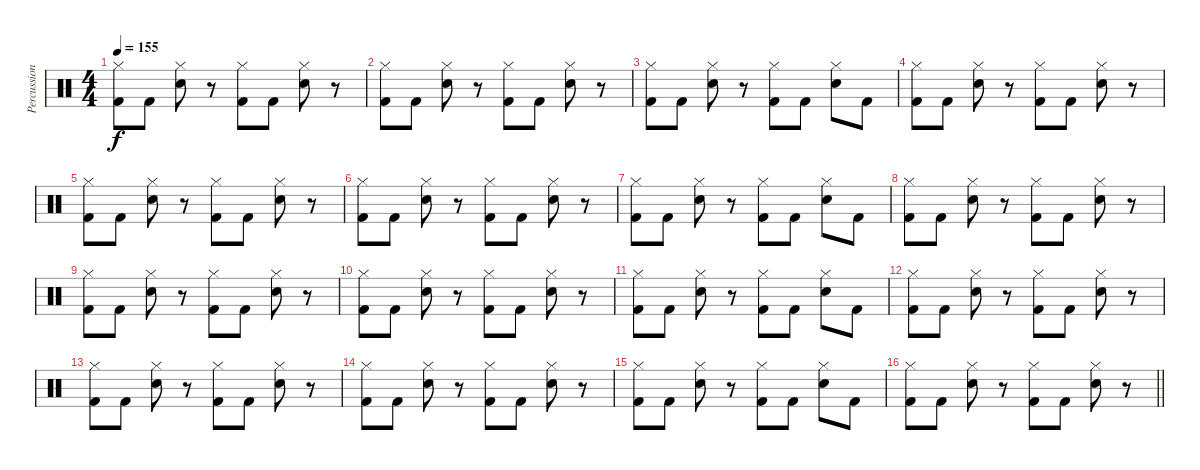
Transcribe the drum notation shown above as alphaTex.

\track ("Percussions" "Percussion") {mute instrument percussion}
\staff {score}
\articulation defaults
\ts (4 4)
\tempo 155
\clef neutral
\ks c
("Hi-Hat (closed)" "Kick (hit) 2").8{dy f} "Kick (hit) 2".8 ("Hi-Hat (closed)" "Electric Snare (hit)").8 r.8 ("Hi-Hat (closed)" "Kick (hit) 2").8 "Kick (hit) 2".8 ("Hi-Hat (closed)" "Electric Snare (hit)").8 r.8 |
("Hi-Hat (closed)" "Kick (hit) 2").8 "Kick (hit) 2".8 ("Hi-Hat (closed)" "Electric Snare (hit)").8 r.8 ("Hi-Hat (closed)" "Kick (hit) 2").8 "Kick (hit) 2".8 ("Hi-Hat (closed)" "Electric Snare (hit)").8 r.8 |
("Hi-Hat (closed)" "Kick (hit) 2").8 "Kick (hit) 2".8 ("Hi-Hat (closed)" "Electric Snare (hit)").8 r.8 ("Hi-Hat (closed)" "Kick (hit) 2").8 "Kick (hit) 2".8 ("Hi-Hat (closed)" "Electric Snare (hit)").8 "Kick (hit) 2".8 |
("Hi-Hat (closed)" "Kick (hit) 2").8 "Kick (hit) 2".8 ("Hi-Hat (closed)" "Electric Snare (hit)").8 r.8 ("Hi-Hat (closed)" "Kick (hit) 2").8 "Kick (hit) 2".8 ("Hi-Hat (closed)" "Electric Snare (hit)").8 r.8 |
("Hi-Hat (closed)" "Kick (hit) 2").8 "Kick (hit) 2".8 ("Hi-Hat (closed)" "Electric Snare (hit)").8 r.8 ("Hi-Hat (closed)" "Kick (hit) 2").8 "Kick (hit) 2".8 ("Hi-Hat (closed)" "Electric Snare (hit)").8 r.8 |
("Hi-Hat (closed)" "Kick (hit) 2").8 "Kick (hit) 2".8 ("Hi-Hat (closed)" "Electric Snare (hit)").8 r.8 ("Hi-Hat (closed)" "Kick (hit) 2").8 "Kick (hit) 2".8 ("Hi-Hat (closed)" "Electric Snare (hit)").8 r.8 |
("Hi-Hat (closed)" "Kick (hit) 2").8 "Kick (hit) 2".8 ("Hi-Hat (closed)" "Electric Snare (hit)").8 r.8 ("Hi-Hat (closed)" "Kick (hit) 2").8 "Kick (hit) 2".8 ("Hi-Hat (closed)" "Electric Snare (hit)").8 "Kick (hit) 2".8 |
("Hi-Hat (closed)" "Kick (hit) 2").8 "Kick (hit) 2".8 ("Hi-Hat (closed)" "Electric Snare (hit)").8 r.8 ("Hi-Hat (closed)" "Kick (hit) 2").8 "Kick (hit) 2".8 ("Hi-Hat (closed)" "Electric Snare (hit)").8 r.8 |
("Hi-Hat (closed)" "Kick (hit) 2").8 "Kick (hit) 2".8 ("Hi-Hat (closed)" "Electric Snare (hit)").8 r.8 ("Hi-Hat (closed)" "Kick (hit) 2").8 "Kick (hit) 2".8 ("Hi-Hat (closed)" "Electric Snare (hit)").8 r.8 |
("Hi-Hat (closed)" "Kick (hit) 2").8 "Kick (hit) 2".8 ("Hi-Hat (closed)" "Electric Snare (hit)").8 r.8 ("Hi-Hat (closed)" "Kick (hit) 2").8 "Kick (hit) 2".8 ("Hi-Hat (closed)" "Electric Snare (hit)").8 r.8 |
("Hi-Hat (closed)" "Kick (hit) 2").8 "Kick (hit) 2".8 ("Hi-Hat (closed)" "Electric Snare (hit)").8 r.8 ("Hi-Hat (closed)" "Kick (hit) 2").8 "Kick (hit) 2".8 ("Hi-Hat (closed)" "Electric Snare (hit)").8 "Kick (hit) 2".8 |
("Hi-Hat (closed)" "Kick (hit) 2").8 "Kick (hit) 2".8 ("Hi-Hat (closed)" "Electric Snare (hit)").8 r.8 ("Hi-Hat (closed)" "Kick (hit) 2").8 "Kick (hit) 2".8 ("Hi-Hat (closed)" "Electric Snare (hit)").8 r.8 |
("Hi-Hat (closed)" "Kick (hit) 2").8 "Kick (hit) 2".8 ("Hi-Hat (closed)" "Electric Snare (hit)").8 r.8 ("Hi-Hat (closed)" "Kick (hit) 2").8 "Kick (hit) 2".8 ("Hi-Hat (closed)" "Electric Snare (hit)").8 r.8 |
("Hi-Hat (closed)" "Kick (hit) 2").8 "Kick (hit) 2".8 ("Hi-Hat (closed)" "Electric Snare (hit)").8 r.8 ("Hi-Hat (closed)" "Kick (hit) 2").8 "Kick (hit) 2".8 ("Hi-Hat (closed)" "Electric Snare (hit)").8 r.8 |
("Hi-Hat (closed)" "Kick (hit) 2").8 "Kick (hit) 2".8 ("Hi-Hat (closed)" "Electric Snare (hit)").8 r.8 ("Hi-Hat (closed)" "Kick (hit) 2").8 "Kick (hit) 2".8 ("Hi-Hat (closed)" "Electric Snare (hit)").8 "Kick (hit) 2".8 |
\barLineRight lightlight
("Hi-Hat (closed)" "Kick (hit) 2").8 "Kick (hit) 2".8 ("Hi-Hat (closed)" "Electric Snare (hit)").8 r.8 ("Hi-Hat (closed)" "Kick (hit) 2").8 "Kick (hit) 2".8 ("Hi-Hat (closed)" "Electric Snare (hit)").8 r.8
